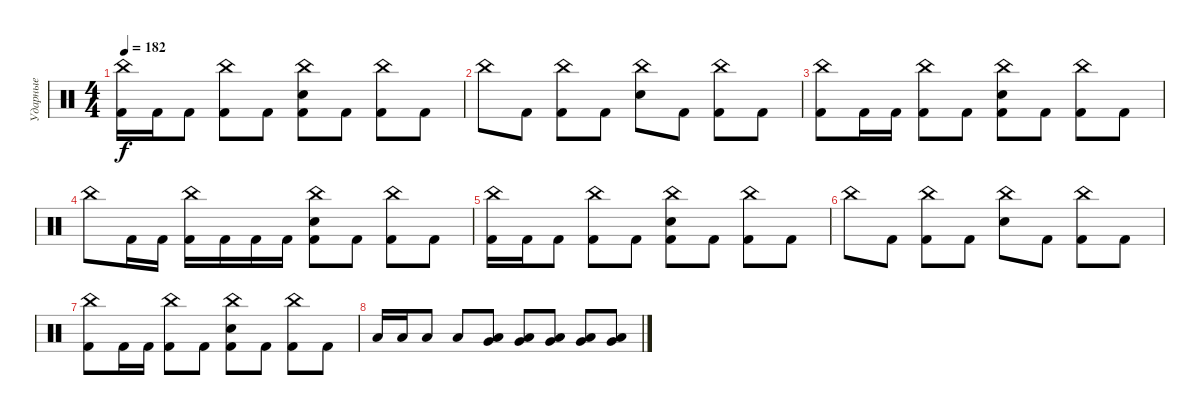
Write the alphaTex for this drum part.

\track ("Ударные" "Ударные") {instrument percussion}
\staff {score}
\articulation defaults
\ts (4 4)
\tempo 182
\clef neutral
\ks c
("China (hit)" "Kick (hit) 2").16{dy f} "Kick (hit) 2".16 "Kick (hit) 2".8 ("China (hit)" "Kick (hit) 2").8 "Kick (hit) 2".8 ("China (hit)" "Electric Snare (hit)" "Kick (hit) 2").8 "Kick (hit) 2".8 ("China (hit)" "Kick (hit) 2").8 "Kick (hit) 2".8 |
"China (hit)".8 "Kick (hit) 2".8 ("China (hit)" "Kick (hit) 2").8 "Kick (hit) 2".8 ("China (hit)" "Electric Snare (hit)").8 "Kick (hit) 2".8 ("China (hit)" "Kick (hit) 2").8 "Kick (hit) 2".8 |
("China (hit)" "Kick (hit) 2").8 "Kick (hit) 2".16 "Kick (hit) 2".16 ("China (hit)" "Kick (hit) 2").8 "Kick (hit) 2".8 ("China (hit)" "Electric Snare (hit)" "Kick (hit) 2").8 "Kick (hit) 2".8 ("China (hit)" "Kick (hit) 2").8 "Kick (hit) 2".8 |
"China (hit)".8 "Kick (hit) 2".16 "Kick (hit) 2".16 ("China (hit)" "Kick (hit) 2").16 "Kick (hit) 2".16 "Kick (hit) 2".16 "Kick (hit) 2".16 ("China (hit)" "Electric Snare (hit)" "Kick (hit) 2").8 "Kick (hit) 2".8 ("China (hit)" "Kick (hit) 2").8 "Kick (hit) 2".8 |
("China (hit)" "Kick (hit) 2").16 "Kick (hit) 2".16 "Kick (hit) 2".8 ("China (hit)" "Kick (hit) 2").8 "Kick (hit) 2".8 ("China (hit)" "Electric Snare (hit)" "Kick (hit) 2").8 "Kick (hit) 2".8 ("China (hit)" "Kick (hit) 2").8 "Kick (hit) 2".8 |
"China (hit)".8 "Kick (hit) 2".8 ("China (hit)" "Kick (hit) 2").8 "Kick (hit) 2".8 ("China (hit)" "Electric Snare (hit)").8 "Kick (hit) 2".8 ("China (hit)" "Kick (hit) 2").8 "Kick (hit) 2".8 |
("China (hit)" "Kick (hit) 2").8 "Kick (hit) 2".16 "Kick (hit) 2".16 ("China (hit)" "Kick (hit) 2").8 "Kick (hit) 2".8 ("China (hit)" "Electric Snare (hit)" "Kick (hit) 2").8 "Kick (hit) 2".8 ("China (hit)" "Kick (hit) 2").8 "Kick (hit) 2".8 |
"Low Floor Tom (hit)".16 "Low Floor Tom (hit)".16 "Low Floor Tom (hit)".8 "Low Floor Tom (hit)".8 ("Very Low Tom (hit)" "Low Floor Tom (hit)").8 ("Very Low Tom (hit)" "Low Floor Tom (hit)").8 ("Very Low Tom (hit)" "Low Floor Tom (hit)").8 ("Very Low Tom (hit)" "Low Floor Tom (hit)").8 ("Very Low Tom (hit)" "Low Floor Tom (hit)").8
